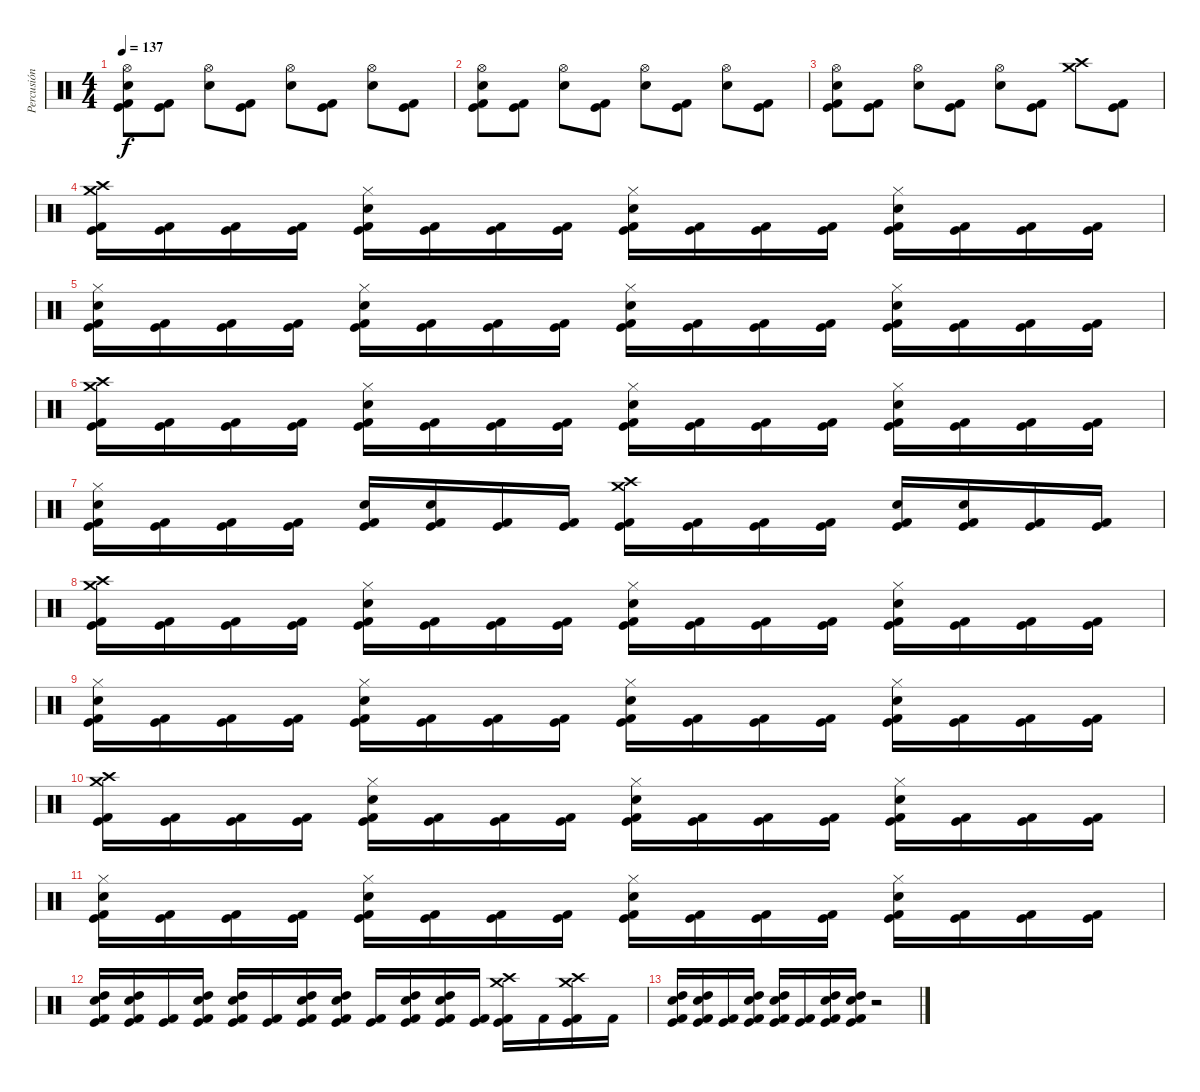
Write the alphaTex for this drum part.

\track ("Percusión" "Percusión") {instrument percussion}
\staff {score}
\articulation defaults
\ts (4 4)
\tempo 137
\clef neutral
\ks c
("Hi-Hat (open)" "Electric Snare (hit)" "Kick (hit) 2" "Kick (hit)").8{dy f} ("Kick (hit)" "Kick (hit) 2").8 ("Hi-Hat (open)" "Electric Snare (hit)").8 ("Kick (hit)" "Kick (hit) 2").8 ("Hi-Hat (open)" "Electric Snare (hit)").8 ("Kick (hit)" "Kick (hit) 2").8 ("Hi-Hat (open)" "Electric Snare (hit)").8 ("Kick (hit) 2" "Kick (hit)").8 |
("Hi-Hat (open)" "Electric Snare (hit)" "Kick (hit) 2" "Kick (hit)").8 ("Kick (hit)" "Kick (hit) 2").8 ("Hi-Hat (open)" "Electric Snare (hit)").8 ("Kick (hit)" "Kick (hit) 2").8 ("Hi-Hat (open)" "Electric Snare (hit)").8 ("Kick (hit)" "Kick (hit) 2").8 ("Hi-Hat (open)" "Electric Snare (hit)").8 ("Kick (hit) 2" "Kick (hit)").8 |
("Hi-Hat (open)" "Electric Snare (hit)" "Kick (hit) 2" "Kick (hit)").8 ("Kick (hit)" "Kick (hit) 2").8 ("Hi-Hat (open)" "Electric Snare (hit)").8 ("Kick (hit)" "Kick (hit) 2").8 ("Hi-Hat (open)" "Electric Snare (hit)").8 ("Kick (hit)" "Kick (hit) 2").8 ("Crash medium (hit)" "Crash high (hit)").8 ("Kick (hit) 2" "Kick (hit)").8 |
("Crash medium (hit)" "Crash high (hit)" "Kick (hit) 2" "Kick (hit)").16 ("Kick (hit) 2" "Kick (hit)").16 ("Kick (hit) 2" "Kick (hit)").16 ("Kick (hit) 2" "Kick (hit)").16 ("Hi-Hat (closed)" "Electric Snare (hit)" "Kick (hit) 2" "Kick (hit)").16 ("Kick (hit) 2" "Kick (hit)").16 ("Kick (hit) 2" "Kick (hit)").16 ("Kick (hit) 2" "Kick (hit)").16 ("Hi-Hat (closed)" "Electric Snare (hit)" "Kick (hit) 2" "Kick (hit)").16 ("Kick (hit) 2" "Kick (hit)").16 ("Kick (hit) 2" "Kick (hit)").16 ("Kick (hit) 2" "Kick (hit)").16 ("Hi-Hat (closed)" "Electric Snare (hit)" "Kick (hit) 2" "Kick (hit)").16 ("Kick (hit) 2" "Kick (hit)").16 ("Kick (hit) 2" "Kick (hit)").16 ("Kick (hit) 2" "Kick (hit)").16 |
("Hi-Hat (closed)" "Electric Snare (hit)" "Kick (hit) 2" "Kick (hit)").16 ("Kick (hit) 2" "Kick (hit)").16 ("Kick (hit) 2" "Kick (hit)").16 ("Kick (hit) 2" "Kick (hit)").16 ("Hi-Hat (closed)" "Electric Snare (hit)" "Kick (hit) 2" "Kick (hit)").16 ("Kick (hit) 2" "Kick (hit)").16 ("Kick (hit) 2" "Kick (hit)").16 ("Kick (hit) 2" "Kick (hit)").16 ("Hi-Hat (closed)" "Electric Snare (hit)" "Kick (hit) 2" "Kick (hit)").16 ("Kick (hit) 2" "Kick (hit)").16 ("Kick (hit) 2" "Kick (hit)").16 ("Kick (hit) 2" "Kick (hit)").16 ("Hi-Hat (closed)" "Electric Snare (hit)" "Kick (hit) 2" "Kick (hit)").16 ("Kick (hit) 2" "Kick (hit)").16 ("Kick (hit) 2" "Kick (hit)").16 ("Kick (hit) 2" "Kick (hit)").16 |
("Crash medium (hit)" "Crash high (hit)" "Kick (hit) 2" "Kick (hit)").16 ("Kick (hit) 2" "Kick (hit)").16 ("Kick (hit) 2" "Kick (hit)").16 ("Kick (hit) 2" "Kick (hit)").16 ("Hi-Hat (closed)" "Electric Snare (hit)" "Kick (hit) 2" "Kick (hit)").16 ("Kick (hit) 2" "Kick (hit)").16 ("Kick (hit) 2" "Kick (hit)").16 ("Kick (hit) 2" "Kick (hit)").16 ("Hi-Hat (closed)" "Electric Snare (hit)" "Kick (hit) 2" "Kick (hit)").16 ("Kick (hit) 2" "Kick (hit)").16 ("Kick (hit) 2" "Kick (hit)").16 ("Kick (hit) 2" "Kick (hit)").16 ("Hi-Hat (closed)" "Electric Snare (hit)" "Kick (hit) 2" "Kick (hit)").16 ("Kick (hit) 2" "Kick (hit)").16 ("Kick (hit) 2" "Kick (hit)").16 ("Kick (hit) 2" "Kick (hit)").16 |
("Hi-Hat (closed)" "Electric Snare (hit)" "Kick (hit) 2" "Kick (hit)").16 ("Kick (hit) 2" "Kick (hit)").16 ("Kick (hit) 2" "Kick (hit)").16 ("Kick (hit) 2" "Kick (hit)").16 ("Electric Snare (hit)" "Kick (hit) 2" "Kick (hit)").16 ("Electric Snare (hit)" "Kick (hit) 2" "Kick (hit)").16 ("Kick (hit) 2" "Kick (hit)").16 ("Kick (hit) 2" "Kick (hit)").16 ("Crash medium (hit)" "Crash high (hit)" "Kick (hit) 2" "Kick (hit)").16 ("Kick (hit) 2" "Kick (hit)").16 ("Kick (hit) 2" "Kick (hit)").16 ("Kick (hit) 2" "Kick (hit)").16 ("Electric Snare (hit)" "Kick (hit) 2" "Kick (hit)").16 ("Electric Snare (hit)" "Kick (hit) 2" "Kick (hit)").16 ("Kick (hit) 2" "Kick (hit)").16 ("Kick (hit) 2" "Kick (hit)").16 |
("Crash medium (hit)" "Crash high (hit)" "Kick (hit) 2" "Kick (hit)").16 ("Kick (hit) 2" "Kick (hit)").16 ("Kick (hit) 2" "Kick (hit)").16 ("Kick (hit) 2" "Kick (hit)").16 ("Hi-Hat (closed)" "Electric Snare (hit)" "Kick (hit) 2" "Kick (hit)").16 ("Kick (hit) 2" "Kick (hit)").16 ("Kick (hit) 2" "Kick (hit)").16 ("Kick (hit) 2" "Kick (hit)").16 ("Hi-Hat (closed)" "Electric Snare (hit)" "Kick (hit) 2" "Kick (hit)").16 ("Kick (hit) 2" "Kick (hit)").16 ("Kick (hit) 2" "Kick (hit)").16 ("Kick (hit) 2" "Kick (hit)").16 ("Hi-Hat (closed)" "Electric Snare (hit)" "Kick (hit) 2" "Kick (hit)").16 ("Kick (hit) 2" "Kick (hit)").16 ("Kick (hit) 2" "Kick (hit)").16 ("Kick (hit) 2" "Kick (hit)").16 |
("Hi-Hat (closed)" "Electric Snare (hit)" "Kick (hit) 2" "Kick (hit)").16 ("Kick (hit) 2" "Kick (hit)").16 ("Kick (hit) 2" "Kick (hit)").16 ("Kick (hit) 2" "Kick (hit)").16 ("Hi-Hat (closed)" "Electric Snare (hit)" "Kick (hit) 2" "Kick (hit)").16 ("Kick (hit) 2" "Kick (hit)").16 ("Kick (hit) 2" "Kick (hit)").16 ("Kick (hit) 2" "Kick (hit)").16 ("Hi-Hat (closed)" "Electric Snare (hit)" "Kick (hit) 2" "Kick (hit)").16 ("Kick (hit) 2" "Kick (hit)").16 ("Kick (hit) 2" "Kick (hit)").16 ("Kick (hit) 2" "Kick (hit)").16 ("Hi-Hat (closed)" "Electric Snare (hit)" "Kick (hit) 2" "Kick (hit)").16 ("Kick (hit) 2" "Kick (hit)").16 ("Kick (hit) 2" "Kick (hit)").16 ("Kick (hit) 2" "Kick (hit)").16 |
("Crash medium (hit)" "Crash high (hit)" "Kick (hit) 2" "Kick (hit)").16 ("Kick (hit) 2" "Kick (hit)").16 ("Kick (hit) 2" "Kick (hit)").16 ("Kick (hit) 2" "Kick (hit)").16 ("Hi-Hat (closed)" "Electric Snare (hit)" "Kick (hit) 2" "Kick (hit)").16 ("Kick (hit) 2" "Kick (hit)").16 ("Kick (hit) 2" "Kick (hit)").16 ("Kick (hit) 2" "Kick (hit)").16 ("Hi-Hat (closed)" "Electric Snare (hit)" "Kick (hit) 2" "Kick (hit)").16 ("Kick (hit) 2" "Kick (hit)").16 ("Kick (hit) 2" "Kick (hit)").16 ("Kick (hit) 2" "Kick (hit)").16 ("Hi-Hat (closed)" "Electric Snare (hit)" "Kick (hit) 2" "Kick (hit)").16 ("Kick (hit) 2" "Kick (hit)").16 ("Kick (hit) 2" "Kick (hit)").16 ("Kick (hit) 2" "Kick (hit)").16 |
("Hi-Hat (closed)" "Electric Snare (hit)" "Kick (hit) 2" "Kick (hit)").16 ("Kick (hit) 2" "Kick (hit)").16 ("Kick (hit) 2" "Kick (hit)").16 ("Kick (hit) 2" "Kick (hit)").16 ("Hi-Hat (closed)" "Electric Snare (hit)" "Kick (hit) 2" "Kick (hit)").16 ("Kick (hit) 2" "Kick (hit)").16 ("Kick (hit) 2" "Kick (hit)").16 ("Kick (hit) 2" "Kick (hit)").16 ("Hi-Hat (closed)" "Electric Snare (hit)" "Kick (hit) 2" "Kick (hit)").16 ("Kick (hit) 2" "Kick (hit)").16 ("Kick (hit) 2" "Kick (hit)").16 ("Kick (hit) 2" "Kick (hit)").16 ("Hi-Hat (closed)" "Electric Snare (hit)" "Kick (hit) 2" "Kick (hit)").16 ("Kick (hit) 2" "Kick (hit)").16 ("Kick (hit) 2" "Kick (hit)").16 ("Kick (hit) 2" "Kick (hit)").16 |
("High Tom (hit)" "Electric Snare (hit)" "Kick (hit)" "Kick (hit) 2").16 ("High Tom (hit)" "Electric Snare (hit)" "Kick (hit)" "Kick (hit) 2").16 ("Kick (hit)" "Kick (hit) 2").16 ("High Tom (hit)" "Electric Snare (hit)" "Kick (hit)" "Kick (hit) 2").16 ("High Tom (hit)" "Electric Snare (hit)" "Kick (hit)" "Kick (hit) 2").16 ("Kick (hit)" "Kick (hit) 2").16 ("High Tom (hit)" "Electric Snare (hit)" "Kick (hit)" "Kick (hit) 2").16 ("High Tom (hit)" "Electric Snare (hit)" "Kick (hit)" "Kick (hit) 2").16 ("Kick (hit)" "Kick (hit) 2").16 ("High Tom (hit)" "Electric Snare (hit)" "Kick (hit)" "Kick (hit) 2").16 ("High Tom (hit)" "Electric Snare (hit)" "Kick (hit)" "Kick (hit) 2").16 ("Kick (hit)" "Kick (hit) 2").16 ("Crash high (hit)" "Crash medium (hit)" "Kick (hit)" "Kick (hit) 2").16 "Kick (hit) 2".16 ("Crash medium (hit)" "Crash high (hit)" "Kick (hit)" "Kick (hit) 2").16 "Kick (hit) 2".16 |
("High Tom (hit)" "Electric Snare (hit)" "Kick (hit)" "Kick (hit) 2").16 ("High Tom (hit)" "Electric Snare (hit)" "Kick (hit)" "Kick (hit) 2").16 ("Kick (hit)" "Kick (hit) 2").16 ("High Tom (hit)" "Electric Snare (hit)" "Kick (hit)" "Kick (hit) 2").16 ("High Tom (hit)" "Electric Snare (hit)" "Kick (hit)" "Kick (hit) 2").16 ("Kick (hit)" "Kick (hit) 2").16 ("High Tom (hit)" "Electric Snare (hit)" "Kick (hit)" "Kick (hit) 2").16 ("High Tom (hit)" "Electric Snare (hit)" "Kick (hit)" "Kick (hit) 2").16 r.2
